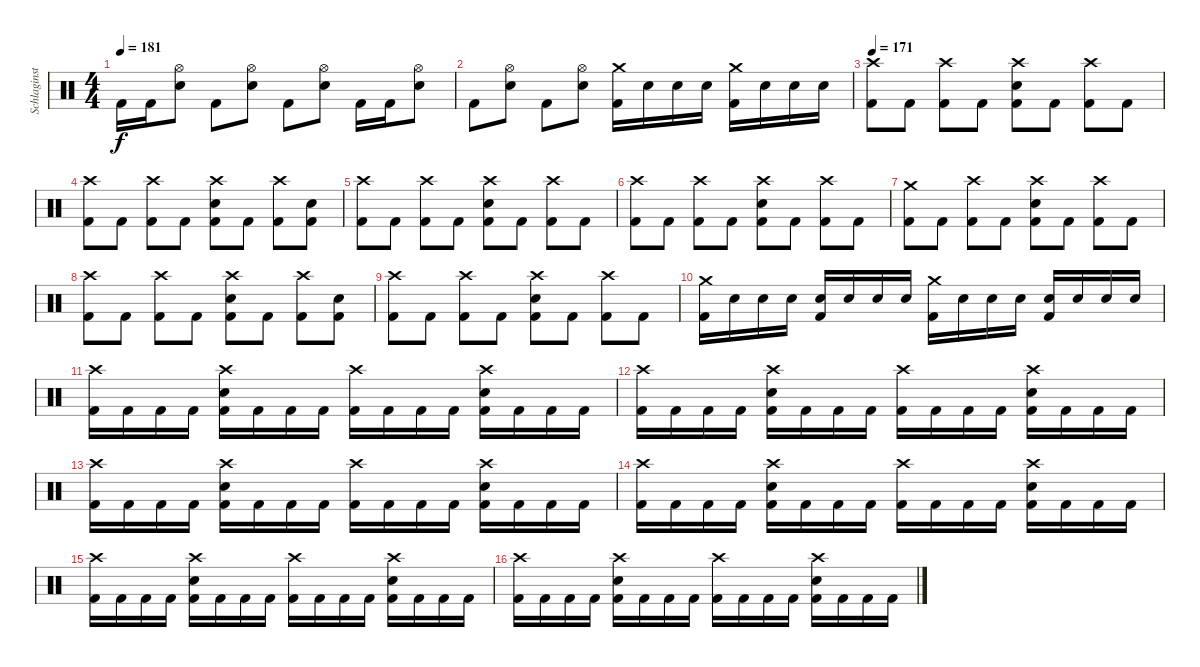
\track ("Schlaginstrumente - Auswahl" "Schlaginst") {instrument percussion}
\staff {score}
\articulation defaults
\ts (4 4)
\tempo 181
\clef neutral
\ks c "Kick (hit) 2".16{dy f} "Kick (hit) 2".16
("Hi-Hat (open)" "Snare (hit) 2").8 "Kick (hit) 2".8 ("Hi-Hat (open)" "Snare (hit) 2").8 "Kick (hit) 2".8 ("Hi-Hat (open)" "Snare (hit) 2").8 "Kick (hit) 2".16 "Kick (hit) 2".16 ("Hi-Hat (open)" "Snare (hit) 2").8 |
"Kick (hit) 2".8 ("Hi-Hat (open)" "Snare (hit) 2").8 "Kick (hit) 2".8 ("Hi-Hat (open)" "Snare (hit) 2").8 ("Crash medium (hit)" "Kick (hit) 2").16 "Snare (hit) 2".16 "Snare (hit) 2".16 "Snare (hit) 2".16 ("Crash medium (hit)" "Kick (hit) 2").16 "Snare (hit) 2".16 "Snare (hit) 2".16 "Snare (hit) 2".16 |
\tempo 171
("Crash high (hit)" "Kick (hit) 2").8 "Kick (hit) 2".8 ("Crash high (hit)" "Kick (hit) 2").8 "Kick (hit) 2".8 ("Crash high (hit)" "Snare (hit) 2" "Kick (hit) 2").8 "Kick (hit) 2".8 ("Crash high (hit)" "Kick (hit) 2").8 "Kick (hit) 2".8 |
("Crash high (hit)" "Kick (hit) 2").8 "Kick (hit) 2".8 ("Crash high (hit)" "Kick (hit) 2").8 "Kick (hit) 2".8 ("Crash high (hit)" "Snare (hit) 2" "Kick (hit) 2").8 "Kick (hit) 2".8 ("Crash high (hit)" "Kick (hit) 2").8 ("Snare (hit) 2" "Kick (hit) 2").8 |
("Crash high (hit)" "Kick (hit) 2").8 "Kick (hit) 2".8 ("Crash high (hit)" "Kick (hit) 2").8 "Kick (hit) 2".8 ("Crash high (hit)" "Snare (hit) 2" "Kick (hit) 2").8 "Kick (hit) 2".8 ("Crash high (hit)" "Kick (hit) 2").8 "Kick (hit) 2".8 |
("Crash high (hit)" "Kick (hit) 2").8 "Kick (hit) 2".8 ("Crash high (hit)" "Kick (hit) 2").8 "Kick (hit) 2".8 ("Crash high (hit)" "Snare (hit) 2" "Kick (hit) 2").8 "Kick (hit) 2".8 ("Crash high (hit)" "Kick (hit) 2").8 "Kick (hit) 2".8 |
("Crash medium (hit)" "Kick (hit) 2").8 "Kick (hit) 2".8 ("Crash high (hit)" "Kick (hit) 2").8 "Kick (hit) 2".8 ("Crash high (hit)" "Snare (hit) 2" "Kick (hit) 2").8 "Kick (hit) 2".8 ("Crash high (hit)" "Kick (hit) 2").8 "Kick (hit) 2".8 |
("Crash high (hit)" "Kick (hit) 2").8 "Kick (hit) 2".8 ("Crash high (hit)" "Kick (hit) 2").8 "Kick (hit) 2".8 ("Crash high (hit)" "Snare (hit) 2" "Kick (hit) 2").8 "Kick (hit) 2".8 ("Crash high (hit)" "Kick (hit) 2").8 ("Snare (hit) 2" "Kick (hit) 2").8 |
("Crash high (hit)" "Kick (hit) 2").8 "Kick (hit) 2".8 ("Crash high (hit)" "Kick (hit) 2").8 "Kick (hit) 2".8 ("Crash high (hit)" "Snare (hit) 2" "Kick (hit) 2").8 "Kick (hit) 2".8 ("Crash high (hit)" "Kick (hit) 2").8 "Kick (hit) 2".8 |
("Crash medium (hit)" "Kick (hit) 2").16 "Snare (hit) 2".16 "Snare (hit) 2".16 "Snare (hit) 2".16 ("Snare (hit) 2" "Kick (hit) 2").16 "Snare (hit) 2".16 "Snare (hit) 2".16 "Snare (hit) 2".16 ("Crash medium (hit)" "Kick (hit) 2").16 "Snare (hit) 2".16 "Snare (hit) 2".16 "Snare (hit) 2".16 ("Snare (hit) 2" "Kick (hit) 2").16 "Snare (hit) 2".16 "Snare (hit) 2".16 "Snare (hit) 2".16 |
("Crash high (hit)" "Kick (hit) 2").16 "Kick (hit) 2".16 "Kick (hit) 2".16 "Kick (hit) 2".16 ("Crash high (hit)" "Snare (hit) 2" "Kick (hit) 2").16 "Kick (hit) 2".16 "Kick (hit) 2".16 "Kick (hit) 2".16 ("Crash high (hit)" "Kick (hit) 2").16 "Kick (hit) 2".16 "Kick (hit) 2".16 "Kick (hit) 2".16 ("Crash high (hit)" "Snare (hit) 2" "Kick (hit) 2").16 "Kick (hit) 2".16 "Kick (hit) 2".16 "Kick (hit) 2".16 |
("Crash high (hit)" "Kick (hit) 2").16 "Kick (hit) 2".16 "Kick (hit) 2".16 "Kick (hit) 2".16 ("Crash high (hit)" "Snare (hit) 2" "Kick (hit) 2").16 "Kick (hit) 2".16 "Kick (hit) 2".16 "Kick (hit) 2".16 ("Crash high (hit)" "Kick (hit) 2").16 "Kick (hit) 2".16 "Kick (hit) 2".16 "Kick (hit) 2".16 ("Crash high (hit)" "Snare (hit) 2" "Kick (hit) 2").16 "Kick (hit) 2".16 "Kick (hit) 2".16 "Kick (hit) 2".16 |
("Crash high (hit)" "Kick (hit) 2").16 "Kick (hit) 2".16 "Kick (hit) 2".16 "Kick (hit) 2".16 ("Crash high (hit)" "Snare (hit) 2" "Kick (hit) 2").16 "Kick (hit) 2".16 "Kick (hit) 2".16 "Kick (hit) 2".16 ("Crash high (hit)" "Kick (hit) 2").16 "Kick (hit) 2".16 "Kick (hit) 2".16 "Kick (hit) 2".16 ("Crash high (hit)" "Snare (hit) 2" "Kick (hit) 2").16 "Kick (hit) 2".16 "Kick (hit) 2".16 "Kick (hit) 2".16 |
("Crash high (hit)" "Kick (hit) 2").16 "Kick (hit) 2".16 "Kick (hit) 2".16 "Kick (hit) 2".16 ("Crash high (hit)" "Snare (hit) 2" "Kick (hit) 2").16 "Kick (hit) 2".16 "Kick (hit) 2".16 "Kick (hit) 2".16 ("Crash high (hit)" "Kick (hit) 2").16 "Kick (hit) 2".16 "Kick (hit) 2".16 "Kick (hit) 2".16 ("Crash high (hit)" "Snare (hit) 2" "Kick (hit) 2").16 "Kick (hit) 2".16 "Kick (hit) 2".16 "Kick (hit) 2".16 |
("Crash high (hit)" "Kick (hit) 2").16 "Kick (hit) 2".16 "Kick (hit) 2".16 "Kick (hit) 2".16 ("Crash high (hit)" "Snare (hit) 2" "Kick (hit) 2").16 "Kick (hit) 2".16 "Kick (hit) 2".16 "Kick (hit) 2".16 ("Crash high (hit)" "Kick (hit) 2").16 "Kick (hit) 2".16 "Kick (hit) 2".16 "Kick (hit) 2".16 ("Crash high (hit)" "Snare (hit) 2" "Kick (hit) 2").16 "Kick (hit) 2".16 "Kick (hit) 2".16 "Kick (hit) 2".16 |
("Crash high (hit)" "Kick (hit) 2").16 "Kick (hit) 2".16 "Kick (hit) 2".16 "Kick (hit) 2".16 ("Crash high (hit)" "Snare (hit) 2" "Kick (hit) 2").16 "Kick (hit) 2".16 "Kick (hit) 2".16 "Kick (hit) 2".16 ("Crash high (hit)" "Kick (hit) 2").16 "Kick (hit) 2".16 "Kick (hit) 2".16 "Kick (hit) 2".16 ("Crash high (hit)" "Snare (hit) 2" "Kick (hit) 2").16 "Kick (hit) 2".16 "Kick (hit) 2".16 "Kick (hit) 2".16
